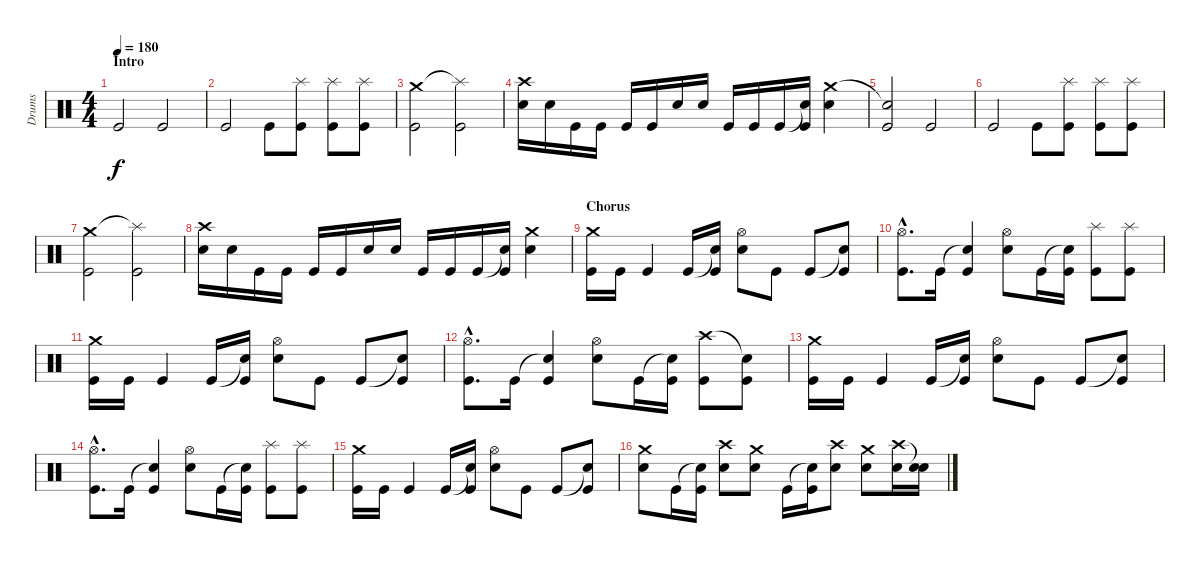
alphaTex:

\track ("Drums" "Drums") {instrument percussion}
\staff {score}
\articulation defaults
\ts (4 4)
\section ("" "Intro")
\tempo 180
\clef neutral
\ks c "Kick (hit)".2{dy f} "Kick (hit)".2
|
"Kick (hit)".2 "Kick (hit)".8 ("Splash (hit)" "Kick (hit)").8 ("Splash (hit)" "Kick (hit)").8 ("Splash (hit)" "Kick (hit)").8 |
("Crash medium (hit)" "Kick (hit)").2 ("Splash (hit)"{t} "Kick (hit)").2 |
("Crash high (hit)" "Electric Snare (hit)").16 "Electric Snare (hit)".16 "Kick (hit)".16 "Kick (hit)".16 "Kick (hit)".16 "Kick (hit)".16 "Electric Snare (hit)".16 "Electric Snare (hit)".16 "Kick (hit)".16 "Kick (hit)".16 "Kick (hit)".16 ("Snare (hit)"{t} "Kick (hit)").16 ("Crash medium (hit)" "Electric Snare (hit)").4 |
("Snare (hit)"{t} "Kick (hit)").2 "Kick (hit)".2 |
"Kick (hit)".2 "Kick (hit)".8 ("Splash (hit)" "Kick (hit)").8 ("Splash (hit)" "Kick (hit)").8 ("Splash (hit)" "Kick (hit)").8 |
("Crash medium (hit)" "Kick (hit)").2 ("Splash (hit)"{t} "Kick (hit)").2 |
("Crash high (hit)" "Electric Snare (hit)").16 "Electric Snare (hit)".16 "Kick (hit)".16 "Kick (hit)".16 "Kick (hit)".16 "Kick (hit)".16 "Electric Snare (hit)".16 "Electric Snare (hit)".16 "Kick (hit)".16 "Kick (hit)".16 "Kick (hit)".16 ("Snare (hit)"{t} "Kick (hit)").16 ("Crash medium (hit)" "Electric Snare (hit)").4 |
\section ("" "Chorus")
("Crash medium (hit)" "Kick (hit)").16 "Kick (hit)".16 "Kick (hit)".4 "Kick (hit)".16 ("Snare (hit)"{t} "Kick (hit)").16 ("Hi-Hat (open)" "Electric Snare (hit)").8 "Kick (hit)".8 "Kick (hit)".8 ("Snare (hit)"{t} "Kick (hit)").8 |
("Hi-Hat (open)"{hac} "Kick (hit)"{hac}).8{d} "Kick (hit)".16 ("Snare (hit)"{t} "Kick (hit)").4 ("Hi-Hat (open)" "Electric Snare (hit)").8 "Kick (hit)".16 ("Snare (hit)"{t} "Kick (hit)").16 ("Splash (hit)" "Kick (hit)").8 ("Splash (hit)" "Kick (hit)").8 |
("Crash medium (hit)" "Kick (hit)").16 "Kick (hit)".16 "Kick (hit)".4 "Kick (hit)".16 ("Snare (hit)"{t} "Kick (hit)").16 ("Hi-Hat (open)" "Electric Snare (hit)").8 "Kick (hit)".8 "Kick (hit)".8 ("Snare (hit)"{t} "Kick (hit)").8 |
("Hi-Hat (open)"{hac} "Kick (hit)"{hac}).8{d} "Kick (hit)".16 ("Snare (hit)"{t} "Kick (hit)").4 ("Hi-Hat (open)" "Electric Snare (hit)").8 "Kick (hit)".16 ("Snare (hit)"{t} "Kick (hit)").16 ("Crash high (hit)" "Kick (hit)").8 ("Snare (hit)"{t} "Kick (hit)").8 |
("Crash medium (hit)" "Kick (hit)").16 "Kick (hit)".16 "Kick (hit)".4 "Kick (hit)".16 ("Snare (hit)"{t} "Kick (hit)").16 ("Hi-Hat (open)" "Electric Snare (hit)").8 "Kick (hit)".8 "Kick (hit)".8 ("Snare (hit)"{t} "Kick (hit)").8 |
("Hi-Hat (open)"{hac} "Kick (hit)"{hac}).8{d} "Kick (hit)".16 ("Snare (hit)"{t} "Kick (hit)").4 ("Hi-Hat (open)" "Electric Snare (hit)").8 "Kick (hit)".16 ("Snare (hit)"{t} "Kick (hit)").16 ("Splash (hit)" "Kick (hit)").8 ("Splash (hit)" "Kick (hit)").8 |
("Crash medium (hit)" "Kick (hit)").16 "Kick (hit)".16 "Kick (hit)".4 "Kick (hit)".16 ("Snare (hit)"{t} "Kick (hit)").16 ("Hi-Hat (open)" "Electric Snare (hit)").8 "Kick (hit)".8 "Kick (hit)".8 ("Snare (hit)"{t} "Kick (hit)").8 |
("Crash medium (hit)" "Electric Snare (hit)").8 "Kick (hit)".16 ("Snare (hit)"{t} "Kick (hit)").16 ("Crash high (hit)" "Electric Snare (hit)").8 ("Crash medium (hit)" "Electric Snare (hit)").8 "Kick (hit)".16 ("Snare (hit)"{t} "Kick (hit)").16 ("Crash high (hit)" "Electric Snare (hit)").8 ("Crash medium (hit)" "Electric Snare (hit)").8 ("Crash high (hit)" "Electric Snare (hit)").16 ("Snare (hit)"{t} "Electric Snare (hit)").16
